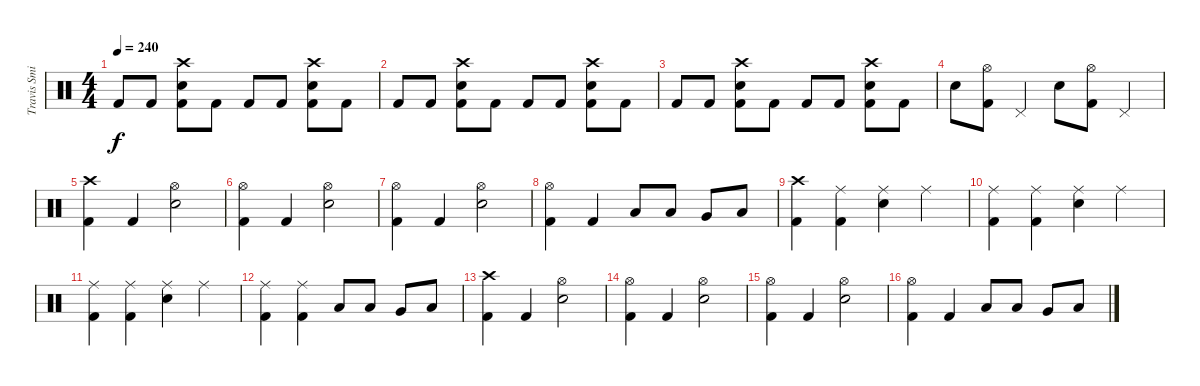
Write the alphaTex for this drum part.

\track ("Travis Smith" "Travis Smi") {instrument percussion}
\staff {score}
\articulation defaults
\ts (4 4)
\tempo 240
\clef neutral
\ks c "Kick (hit) 2".8{dy f} "Kick (hit) 2".8
("Kick (hit) 2" "Snare (hit) 2" "Crash high (hit)").8 "Kick (hit) 2".8 "Kick (hit) 2".8 "Kick (hit) 2".8 ("Kick (hit) 2" "Snare (hit) 2" "Crash high (hit)").8 "Kick (hit) 2".8 |
"Kick (hit) 2".8 "Kick (hit) 2".8 ("Kick (hit) 2" "Snare (hit) 2" "Crash high (hit)").8 "Kick (hit) 2".8 "Kick (hit) 2".8 "Kick (hit) 2".8 ("Kick (hit) 2" "Snare (hit) 2" "Crash high (hit)").8 "Kick (hit) 2".8 |
"Kick (hit) 2".8 "Kick (hit) 2".8 ("Kick (hit) 2" "Snare (hit) 2" "Crash high (hit)").8 "Kick (hit) 2".8 "Kick (hit) 2".8 "Kick (hit) 2".8 ("Kick (hit) 2" "Snare (hit) 2" "Crash high (hit)").8 "Kick (hit) 2".8 |
"Snare (hit) 2".8 ("Kick (hit) 2" "Hi-Hat (open)").8 "Pedal Hi-Hat (hit)".4 "Snare (hit) 2".8 ("Kick (hit) 2" "Hi-Hat (open)").8 "Pedal Hi-Hat (hit)".4 |
("Kick (hit) 2" "Crash high (hit)").4 "Kick (hit) 2".4 ("Snare (hit) 2" "Hi-Hat (open)").2 |
("Kick (hit) 2" "Hi-Hat (open)").4 "Kick (hit) 2".4 ("Snare (hit) 2" "Hi-Hat (open)").2 |
("Kick (hit) 2" "Hi-Hat (open)").4 "Kick (hit) 2".4 ("Snare (hit) 2" "Hi-Hat (open)").2 |
("Kick (hit) 2" "Hi-Hat (open)").4 "Kick (hit) 2".4 "Low Tom (hit)".8 "Low Tom (hit)".8 "Very Low Tom (hit)".8 "Low Floor Tom (hit)".8 |
("Kick (hit) 2" "Crash high (hit)").4 ("Kick (hit) 2" "Ride (middle)").4 ("Snare (hit) 2" "Ride (middle)").4 "Ride (middle)".4 |
("Kick (hit) 2" "Ride (middle)").4 ("Kick (hit) 2" "Ride (middle)").4 ("Snare (hit) 2" "Ride (middle)").4 "Ride (middle)".4 |
("Kick (hit) 2" "Ride (middle)").4 ("Kick (hit) 2" "Ride (middle)").4 ("Snare (hit) 2" "Ride (middle)").4 "Ride (middle)".4 |
("Kick (hit) 2" "Ride (middle)").4 ("Kick (hit) 2" "Ride (middle)").4 "Low Tom (hit)".8 "Low Tom (hit)".8 "Very Low Tom (hit)".8 "Low Floor Tom (hit)".8 |
("Kick (hit) 2" "Crash high (hit)").4 "Kick (hit) 2".4 ("Snare (hit) 2" "Hi-Hat (open)").2 |
("Kick (hit) 2" "Hi-Hat (open)").4 "Kick (hit) 2".4 ("Snare (hit) 2" "Hi-Hat (open)").2 |
("Kick (hit) 2" "Hi-Hat (open)").4 "Kick (hit) 2".4 ("Snare (hit) 2" "Hi-Hat (open)").2 |
("Kick (hit) 2" "Hi-Hat (open)").4 "Kick (hit) 2".4 "Low Tom (hit)".8 "Low Tom (hit)".8 "Very Low Tom (hit)".8 "Low Floor Tom (hit)".8
